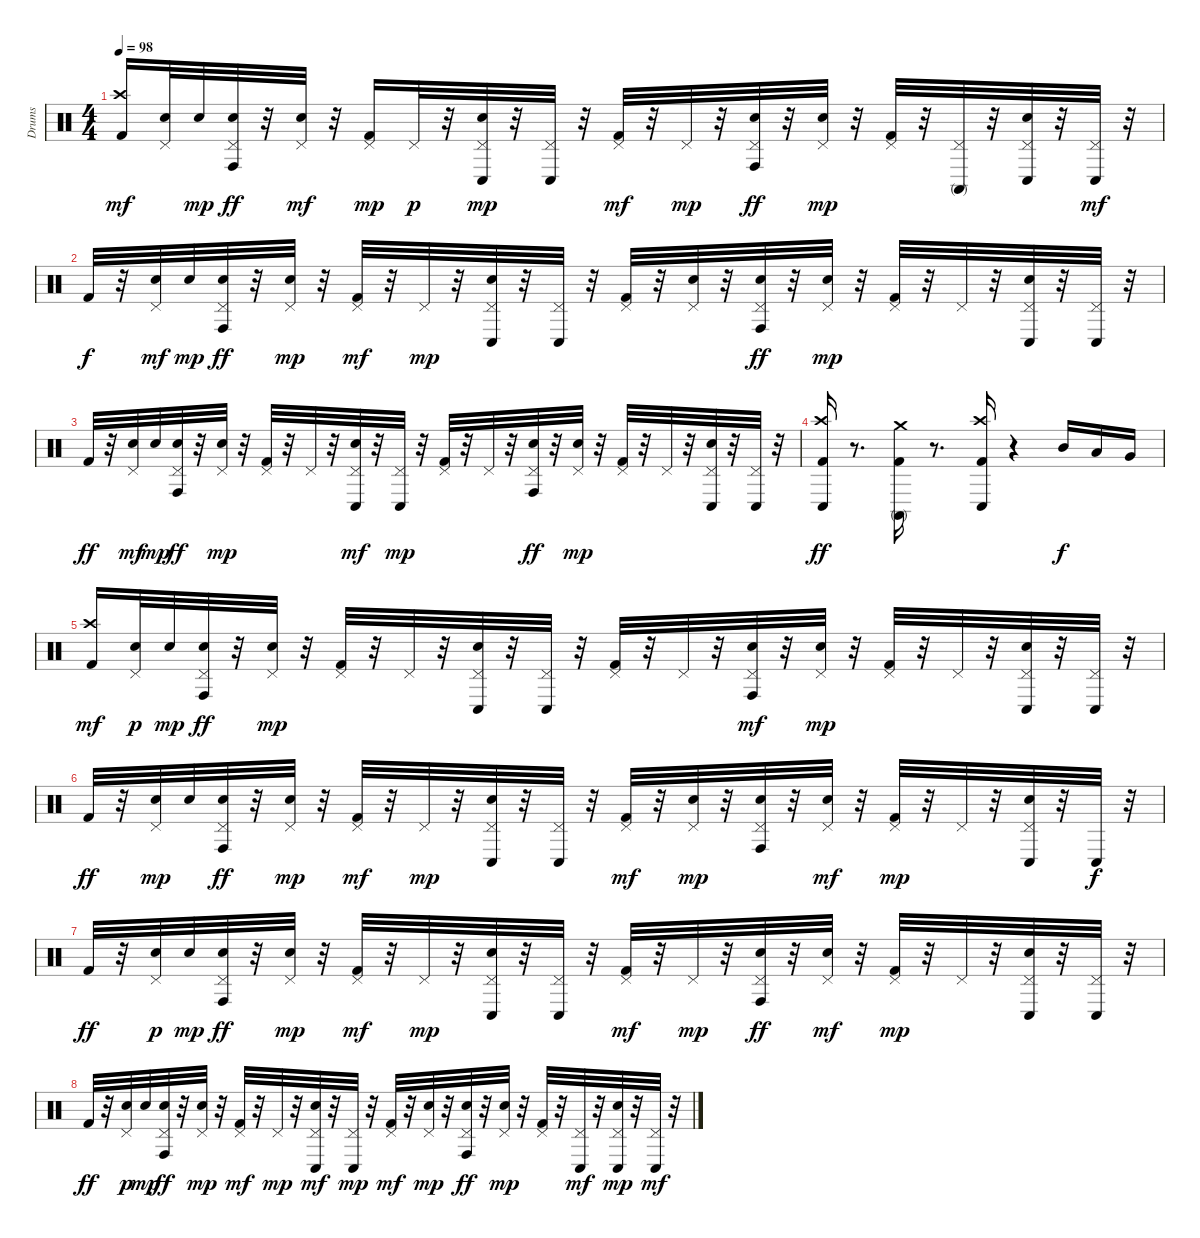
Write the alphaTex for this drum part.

\track ("Drums" "Drums") {instrument percussion}
\staff {score}
\articulation defaults
\ts (4 4)
\tempo 98
\clef neutral
\ks c
("Kick (hit) 2" "Crash high (hit)").16{dy mf} ("Electric Snare (hit)" "Pedal Hi-Hat (hit)").32 "Electric Snare (hit)".32{dy mp} ("Electric Snare (hit)" "Pedal Hi-Hat (hit)" "Conga high (hit)").32{dy ff} r.32 ("Electric Snare (hit)" "Pedal Hi-Hat (hit)").32{dy mf} r.32 ("Kick (hit) 2" "Pedal Hi-Hat (hit)").16{dy mp} "Pedal Hi-Hat (hit)".32{dy p} r.32 ("Electric Snare (hit)" "Pedal Hi-Hat (hit)" "Conga low (hit)").32{dy mp} r.32 ("Pedal Hi-Hat (hit)" "Conga low (hit)").32 r.32 ("Kick (hit) 2" "Pedal Hi-Hat (hit)").32{dy mf} r.32 "Pedal Hi-Hat (hit)".32{dy mp} r.32 ("Electric Snare (hit)" "Pedal Hi-Hat (hit)" "Conga high (hit)").32{dy ff} r.32 ("Electric Snare (hit)" "Pedal Hi-Hat (hit)").32{dy mp} r.32 ("Kick (hit) 2" "Pedal Hi-Hat (hit)").32 r.32 ("Pedal Hi-Hat (hit)" "Conga high (mute)").32 r.32 ("Electric Snare (hit)" "Pedal Hi-Hat (hit)" "Conga low (hit)").32 r.32 ("Pedal Hi-Hat (hit)" "Conga low (hit)").32{dy mf} r.32 |
"Kick (hit) 2".32{dy f} r.32 ("Electric Snare (hit)" "Pedal Hi-Hat (hit)").32{dy mf} "Electric Snare (hit)".32{dy mp} ("Electric Snare (hit)" "Pedal Hi-Hat (hit)" "Conga high (hit)").32{dy ff} r.32 ("Electric Snare (hit)" "Pedal Hi-Hat (hit)").32{dy mp} r.32 ("Kick (hit) 2" "Pedal Hi-Hat (hit)").32{dy mf} r.32 "Pedal Hi-Hat (hit)".32{dy mp} r.32 ("Electric Snare (hit)" "Pedal Hi-Hat (hit)" "Conga low (hit)").32 r.32 ("Pedal Hi-Hat (hit)" "Conga low (hit)").32 r.32 ("Kick (hit) 2" "Pedal Hi-Hat (hit)").32 r.32 ("Electric Snare (hit)" "Pedal Hi-Hat (hit)").32{volume 12} r.32 ("Electric Snare (hit)" "Pedal Hi-Hat (hit)" "Conga high (hit)").32{dy ff} r.32 ("Electric Snare (hit)" "Pedal Hi-Hat (hit)").32{dy mp} r.32 ("Kick (hit) 2" "Pedal Hi-Hat (hit)").32 r.32 "Pedal Hi-Hat (hit)".32 r.32 ("Electric Snare (hit)" "Pedal Hi-Hat (hit)" "Conga low (hit)").32 r.32 ("Pedal Hi-Hat (hit)" "Conga low (hit)").32 r.32 |
"Kick (hit) 2".32{dy ff} r.32 ("Electric Snare (hit)" "Pedal Hi-Hat (hit)").32{dy mf} "Electric Snare (hit)".32{dy mp} ("Electric Snare (hit)" "Pedal Hi-Hat (hit)" "Conga high (hit)").32{dy ff} r.32 ("Electric Snare (hit)" "Pedal Hi-Hat (hit)").32{dy mp} r.32 ("Kick (hit) 2" "Pedal Hi-Hat (hit)").32 r.32 "Pedal Hi-Hat (hit)".32 r.32 ("Electric Snare (hit)" "Pedal Hi-Hat (hit)" "Conga low (hit)").32{dy mf} r.32 ("Pedal Hi-Hat (hit)" "Conga low (hit)").32{dy mp} r.32 ("Kick (hit) 2" "Pedal Hi-Hat (hit)").32 r.32 "Pedal Hi-Hat (hit)".32 r.32 ("Electric Snare (hit)" "Pedal Hi-Hat (hit)" "Conga high (hit)").32{dy ff} r.32 ("Electric Snare (hit)" "Pedal Hi-Hat (hit)").32{dy mp} r.32 ("Kick (hit) 2" "Pedal Hi-Hat (hit)").32 r.32 "Pedal Hi-Hat (hit)".32 r.32 ("Electric Snare (hit)" "Pedal Hi-Hat (hit)" "Conga low (hit)").32 r.32 ("Pedal Hi-Hat (hit)" "Conga low (hit)").32 r.32 |
("Kick (hit) 2" "Crash high (hit)" "Conga low (hit)").16{dy ff} r.8{d} ("Kick (hit) 2" "Crash medium (hit)" "Conga high (mute)").16 r.8{d} ("Kick (hit) 2" "Crash high (hit)" "Conga low (hit)").16 r.4 "Mid Tom (hit)".16{dy f} "Low Tom (hit)".16 "Very Low Tom (hit)".16 |
("Kick (hit) 2" "Crash high (hit)").16{dy mf} ("Electric Snare (hit)" "Pedal Hi-Hat (hit)").32{dy p} "Electric Snare (hit)".32{dy mp} ("Electric Snare (hit)" "Pedal Hi-Hat (hit)" "Conga high (hit)").32{dy ff} r.32 ("Electric Snare (hit)" "Pedal Hi-Hat (hit)").32{dy mp} r.32 ("Kick (hit) 2" "Pedal Hi-Hat (hit)").32 r.32 "Pedal Hi-Hat (hit)".32 r.32 ("Electric Snare (hit)" "Pedal Hi-Hat (hit)" "Conga low (hit)").32 r.32 ("Pedal Hi-Hat (hit)" "Conga low (hit)").32 r.32 ("Kick (hit) 2" "Pedal Hi-Hat (hit)").32 r.32 "Pedal Hi-Hat (hit)".32 r.32 ("Electric Snare (hit)" "Pedal Hi-Hat (hit)" "Conga high (hit)").32{dy mf} r.32 ("Electric Snare (hit)" "Pedal Hi-Hat (hit)").32{dy mp} r.32 ("Kick (hit) 2" "Pedal Hi-Hat (hit)").32 r.32 "Pedal Hi-Hat (hit)".32 r.32 ("Electric Snare (hit)" "Pedal Hi-Hat (hit)" "Conga low (hit)").32 r.32 ("Pedal Hi-Hat (hit)" "Conga low (hit)").32 r.32 |
"Kick (hit) 2".32{dy ff} r.32 ("Electric Snare (hit)" "Pedal Hi-Hat (hit)").32{dy mp} "Electric Snare (hit)".32 ("Electric Snare (hit)" "Pedal Hi-Hat (hit)" "Conga high (hit)").32{dy ff} r.32 ("Electric Snare (hit)" "Pedal Hi-Hat (hit)").32{dy mp} r.32 ("Kick (hit) 2" "Pedal Hi-Hat (hit)").32{dy mf} r.32 "Pedal Hi-Hat (hit)".32{dy mp} r.32 ("Electric Snare (hit)" "Pedal Hi-Hat (hit)" "Conga low (hit)").32 r.32 ("Pedal Hi-Hat (hit)" "Conga low (hit)").32 r.32 ("Kick (hit) 2" "Pedal Hi-Hat (hit)").32{dy mf} r.32 ("Electric Snare (hit)" "Pedal Hi-Hat (hit)").32{dy mp} r.32 ("Electric Snare (hit)" "Pedal Hi-Hat (hit)" "Conga high (hit)").32 r.32 ("Electric Snare (hit)" "Pedal Hi-Hat (hit)").32{dy mf} r.32 ("Kick (hit) 2" "Pedal Hi-Hat (hit)").32{dy mp} r.32 "Pedal Hi-Hat (hit)".32 r.32 ("Electric Snare (hit)" "Pedal Hi-Hat (hit)" "Conga low (hit)").32 r.32 "Conga low (hit)".32{dy f} r.32 |
"Kick (hit) 2".32{dy ff} r.32 ("Electric Snare (hit)" "Pedal Hi-Hat (hit)").32{dy p} "Electric Snare (hit)".32{dy mp} ("Electric Snare (hit)" "Pedal Hi-Hat (hit)" "Conga high (hit)").32{dy ff} r.32 ("Electric Snare (hit)" "Pedal Hi-Hat (hit)").32{dy mp} r.32 ("Kick (hit) 2" "Pedal Hi-Hat (hit)").32{dy mf} r.32 "Pedal Hi-Hat (hit)".32{dy mp} r.32 ("Electric Snare (hit)" "Pedal Hi-Hat (hit)" "Conga low (hit)").32 r.32 ("Pedal Hi-Hat (hit)" "Conga low (hit)").32 r.32 ("Kick (hit) 2" "Pedal Hi-Hat (hit)").32{dy mf} r.32 "Pedal Hi-Hat (hit)".32{dy mp} r.32 ("Electric Snare (hit)" "Pedal Hi-Hat (hit)" "Conga high (hit)").32{dy ff} r.32 ("Electric Snare (hit)" "Pedal Hi-Hat (hit)").32{dy mf} r.32 ("Kick (hit) 2" "Pedal Hi-Hat (hit)").32{dy mp} r.32 "Pedal Hi-Hat (hit)".32 r.32 ("Electric Snare (hit)" "Pedal Hi-Hat (hit)" "Conga low (hit)").32 r.32 ("Pedal Hi-Hat (hit)" "Conga low (hit)").32 r.32 |
"Kick (hit) 2".32{dy ff} r.32 ("Electric Snare (hit)" "Pedal Hi-Hat (hit)").32{dy p} "Electric Snare (hit)".32{dy mp} ("Electric Snare (hit)" "Pedal Hi-Hat (hit)" "Conga high (hit)").32{dy ff} r.32 ("Electric Snare (hit)" "Pedal Hi-Hat (hit)").32{dy mp} r.32 ("Kick (hit) 2" "Pedal Hi-Hat (hit)").32{dy mf} r.32 "Pedal Hi-Hat (hit)".32{dy mp} r.32 ("Electric Snare (hit)" "Pedal Hi-Hat (hit)" "Conga low (hit)").32{dy mf} r.32 ("Pedal Hi-Hat (hit)" "Conga low (hit)").32{dy mp} r.32 ("Kick (hit) 2" "Pedal Hi-Hat (hit)").32{dy mf} r.32 ("Electric Snare (hit)" "Pedal Hi-Hat (hit)").32{dy mp} r.32 ("Electric Snare (hit)" "Pedal Hi-Hat (hit)" "Conga high (hit)").32{dy ff} r.32 ("Electric Snare (hit)" "Pedal Hi-Hat (hit)").32{dy mp} r.32 ("Kick (hit) 2" "Pedal Hi-Hat (hit)").32 r.32 ("Pedal Hi-Hat (hit)" "Conga low (hit)").32{dy mf} r.32 ("Electric Snare (hit)" "Pedal Hi-Hat (hit)" "Conga low (hit)").32{dy mp} r.32 ("Pedal Hi-Hat (hit)" "Conga low (hit)").32{dy mf} r.32
